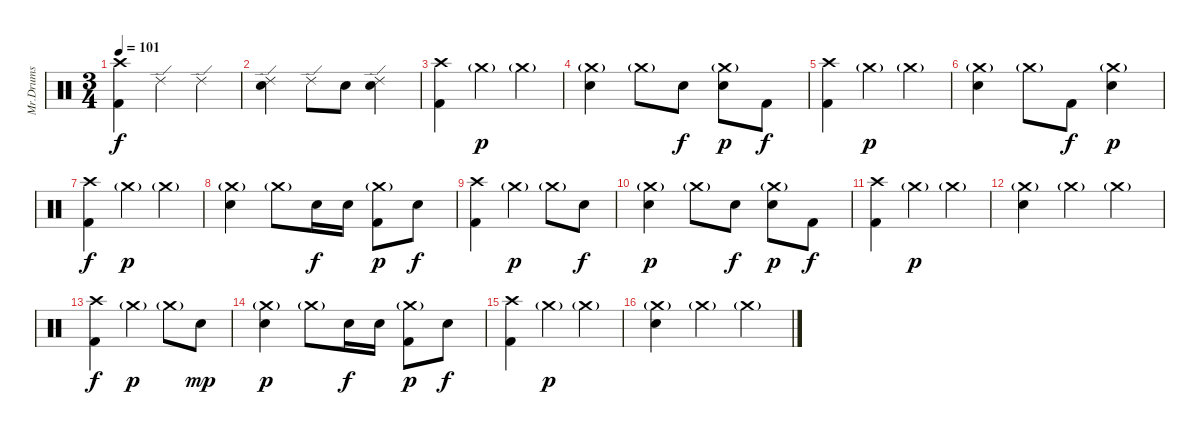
\track ("Mr.Drums" "Mr.Drums") {instrument percussion}
\staff {score}
\articulation defaults
\ts (3 4)
\tempo 101
\clef neutral
\ks c
("Crash high (hit)" "Kick (hit) 2").4{dy f} "Ride (edge) 2".4 "Ride (edge) 2".4 |
("Ride (edge) 2" "Electric Snare (hit)").4 "Ride (edge) 2".8 "Electric Snare (hit)".8 ("Ride (edge) 2" "Electric Snare (hit)").4 |
("Crash high (hit)" "Kick (hit) 2").4 "Crash medium (hit)"{g}.4{dy p} "Crash medium (hit)"{g}.4 |
("Crash medium (hit)"{g} "Electric Snare (hit)").4 "Crash medium (hit)"{g}.8 "Electric Snare (hit)".8{dy f} ("Crash medium (hit)"{g} "Electric Snare (hit)").8{dy p} "Kick (hit) 2".8{dy f} |
("Crash high (hit)" "Kick (hit) 2").4 "Crash medium (hit)"{g}.4{dy p} "Crash medium (hit)"{g}.4 |
("Crash medium (hit)"{g} "Electric Snare (hit)").4 "Crash medium (hit)"{g}.8 "Kick (hit) 2".8{dy f} ("Crash medium (hit)"{g} "Electric Snare (hit)").4{dy p} |
("Crash high (hit)" "Kick (hit) 2").4{dy f} "Crash medium (hit)"{g}.4{dy p} "Crash medium (hit)"{g}.4 |
("Crash medium (hit)"{g} "Electric Snare (hit)").4 "Crash medium (hit)"{g}.8 "Electric Snare (hit)".16{dy f} "Electric Snare (hit)".16 ("Crash medium (hit)"{g} "Kick (hit) 2").8{dy p} "Electric Snare (hit)".8{dy f} |
("Crash high (hit)" "Kick (hit) 2").4 "Crash medium (hit)"{g}.4{dy p} "Crash medium (hit)"{g}.8 "Electric Snare (hit)".8{dy f} |
("Crash medium (hit)"{g} "Electric Snare (hit)").4{dy p} "Crash medium (hit)"{g}.8 "Electric Snare (hit)".8{dy f} ("Crash medium (hit)"{g} "Electric Snare (hit)").8{dy p} "Kick (hit) 2".8{dy f} |
("Crash high (hit)" "Kick (hit) 2").4 "Crash medium (hit)"{g}.4{dy p} "Crash medium (hit)"{g}.4 |
("Crash medium (hit)"{g} "Electric Snare (hit)").4 "Crash medium (hit)"{g}.4 "Crash medium (hit)"{g}.4 |
("Crash high (hit)" "Kick (hit) 2").4{dy f} "Crash medium (hit)"{g}.4{dy p} "Crash medium (hit)"{g}.8 "Electric Snare (hit)".8{dy mp} |
("Crash medium (hit)"{g} "Electric Snare (hit)").4{dy p} "Crash medium (hit)"{g}.8 "Electric Snare (hit)".16{dy f} "Electric Snare (hit)".16 ("Crash medium (hit)"{g} "Kick (hit) 2").8{dy p} "Electric Snare (hit)".8{dy f} |
("Crash high (hit)" "Kick (hit) 2").4 "Crash medium (hit)"{g}.4{dy p} "Crash medium (hit)"{g}.4 |
("Crash medium (hit)"{g} "Electric Snare (hit)").4 "Crash medium (hit)"{g}.4 "Crash medium (hit)"{g}.4
